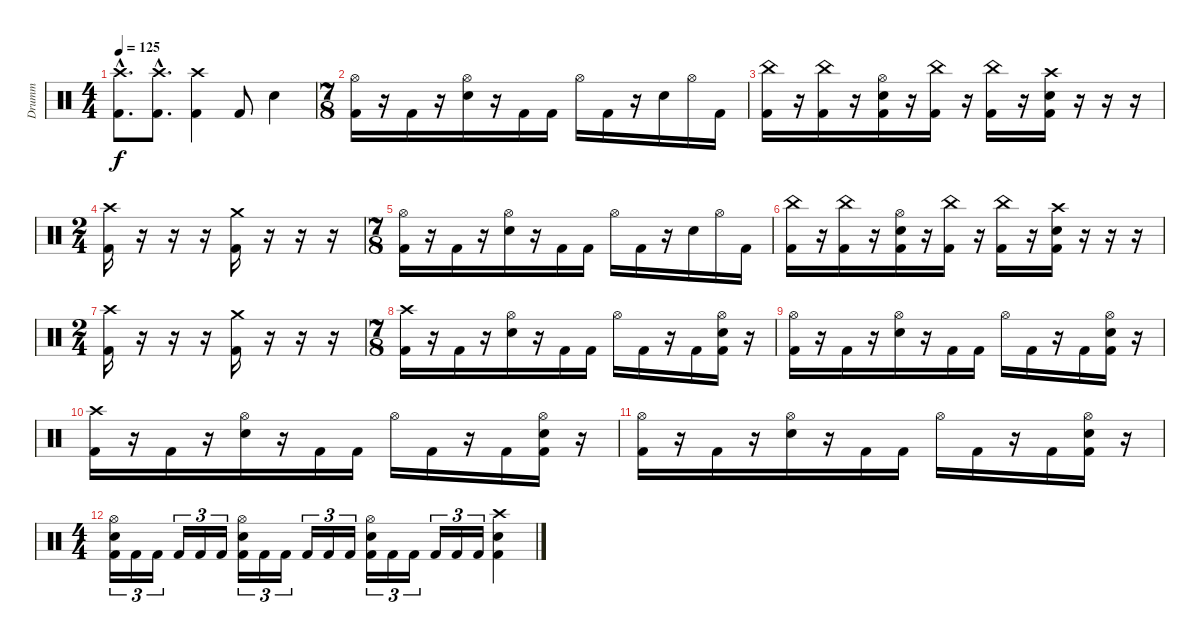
\track ("Drumm" "Drumm") {instrument percussion}
\staff {score}
\articulation defaults
\ts (4 4)
\tempo 125
\clef neutral
\ks c
("Crash high (hit)"{hac} "Kick (hit) 2"{hac}).8{d dy f} ("Crash high (hit)"{hac} "Kick (hit) 2"{hac}).8{d} ("Crash high (hit)" "Kick (hit) 2").4 "Kick (hit) 2".8 "Electric Snare (hit)".4 |
\ts (7 8)
("Hi-Hat (open)" "Kick (hit) 2").16 r.16 "Kick (hit) 2".16 r.16 ("Hi-Hat (open)" "Electric Snare (hit)").16 r.16 "Kick (hit) 2".16 "Kick (hit) 2".16 "Hi-Hat (open)".16 "Kick (hit) 2".16 r.16 "Electric Snare (hit)".16 "Hi-Hat (open)".16 "Kick (hit) 2".16 |
("China (hit)" "Kick (hit) 2").16 r.16 ("China (hit)" "Kick (hit) 2").16 r.16 ("Hi-Hat (open)" "Electric Snare (hit)" "Kick (hit) 2").16 r.16 ("China (hit)" "Kick (hit) 2").16 r.16 ("China (hit)" "Kick (hit) 2").16 r.16 ("Crash high (hit)" "Electric Snare (hit)" "Kick (hit) 2").16 r.16 r.16 r.16 |
\ts (2 4)
("Crash high (hit)" "Kick (hit) 2").16 r.16 r.16 r.16 ("Crash medium (hit)" "Kick (hit) 2").16 r.16 r.16 r.16 |
\ts (7 8)
("Hi-Hat (open)" "Kick (hit) 2").16 r.16 "Kick (hit) 2".16 r.16 ("Hi-Hat (open)" "Electric Snare (hit)").16 r.16 "Kick (hit) 2".16 "Kick (hit) 2".16 "Hi-Hat (open)".16 "Kick (hit) 2".16 r.16 "Electric Snare (hit)".16 "Hi-Hat (open)".16 "Kick (hit) 2".16 |
("China (hit)" "Kick (hit) 2").16 r.16 ("China (hit)" "Kick (hit) 2").16 r.16 ("Hi-Hat (open)" "Electric Snare (hit)" "Kick (hit) 2").16 r.16 ("China (hit)" "Kick (hit) 2").16 r.16 ("China (hit)" "Kick (hit) 2").16 r.16 ("Crash high (hit)" "Electric Snare (hit)" "Kick (hit) 2").16 r.16 r.16 r.16 |
\ts (2 4)
("Crash high (hit)" "Kick (hit) 2").16 r.16 r.16 r.16 ("Crash medium (hit)" "Kick (hit) 2").16 r.16 r.16 r.16 |
\ts (7 8)
("Crash high (hit)" "Kick (hit) 2").16 r.16 "Kick (hit) 2".16 r.16 ("Hi-Hat (open)" "Electric Snare (hit)").16 r.16 "Kick (hit) 2".16 "Kick (hit) 2".16 "Hi-Hat (open)".16 "Kick (hit) 2".16 r.16 "Kick (hit) 2".16 ("Hi-Hat (open)" "Electric Snare (hit)" "Kick (hit) 2").16 r.16 |
("Hi-Hat (open)" "Kick (hit) 2").16 r.16 "Kick (hit) 2".16 r.16 ("Hi-Hat (open)" "Electric Snare (hit)").16 r.16 "Kick (hit) 2".16 "Kick (hit) 2".16 "Hi-Hat (open)".16 "Kick (hit) 2".16 r.16 "Kick (hit) 2".16 ("Hi-Hat (open)" "Electric Snare (hit)" "Kick (hit) 2").16 r.16 |
("Crash high (hit)" "Kick (hit) 2").16 r.16 "Kick (hit) 2".16 r.16 ("Hi-Hat (open)" "Electric Snare (hit)").16 r.16 "Kick (hit) 2".16 "Kick (hit) 2".16 "Hi-Hat (open)".16 "Kick (hit) 2".16 r.16 "Kick (hit) 2".16 ("Hi-Hat (open)" "Electric Snare (hit)" "Kick (hit) 2").16 r.16 |
("Hi-Hat (open)" "Kick (hit) 2").16 r.16 "Kick (hit) 2".16 r.16 ("Hi-Hat (open)" "Electric Snare (hit)").16 r.16 "Kick (hit) 2".16 "Kick (hit) 2".16 "Hi-Hat (open)".16 "Kick (hit) 2".16 r.16 "Kick (hit) 2".16 ("Hi-Hat (open)" "Electric Snare (hit)" "Kick (hit) 2").16 r.16 |
\ts (4 4)
("Hi-Hat (open)" "Electric Snare (hit)" "Kick (hit) 2").16{tu (3 2)} "Kick (hit) 2".16{tu (3 2)} "Kick (hit) 2".16{tu (3 2)} "Kick (hit) 2".16{tu (3 2)} "Kick (hit) 2".16{tu (3 2)} "Kick (hit) 2".16{tu (3 2)} ("Hi-Hat (open)" "Electric Snare (hit)" "Kick (hit) 2").16{tu (3 2)} "Kick (hit) 2".16{tu (3 2)} "Kick (hit) 2".16{tu (3 2)} "Kick (hit) 2".16{tu (3 2)} "Kick (hit) 2".16{tu (3 2)} "Kick (hit) 2".16{tu (3 2)} ("Hi-Hat (open)" "Electric Snare (hit)" "Kick (hit) 2").16{tu (3 2)} "Kick (hit) 2".16{tu (3 2)} "Kick (hit) 2".16{tu (3 2)} "Kick (hit) 2".16{tu (3 2)} "Kick (hit) 2".16{tu (3 2)} "Kick (hit) 2".16{tu (3 2)} ("Crash high (hit)" "Electric Snare (hit)" "Kick (hit) 2").4
